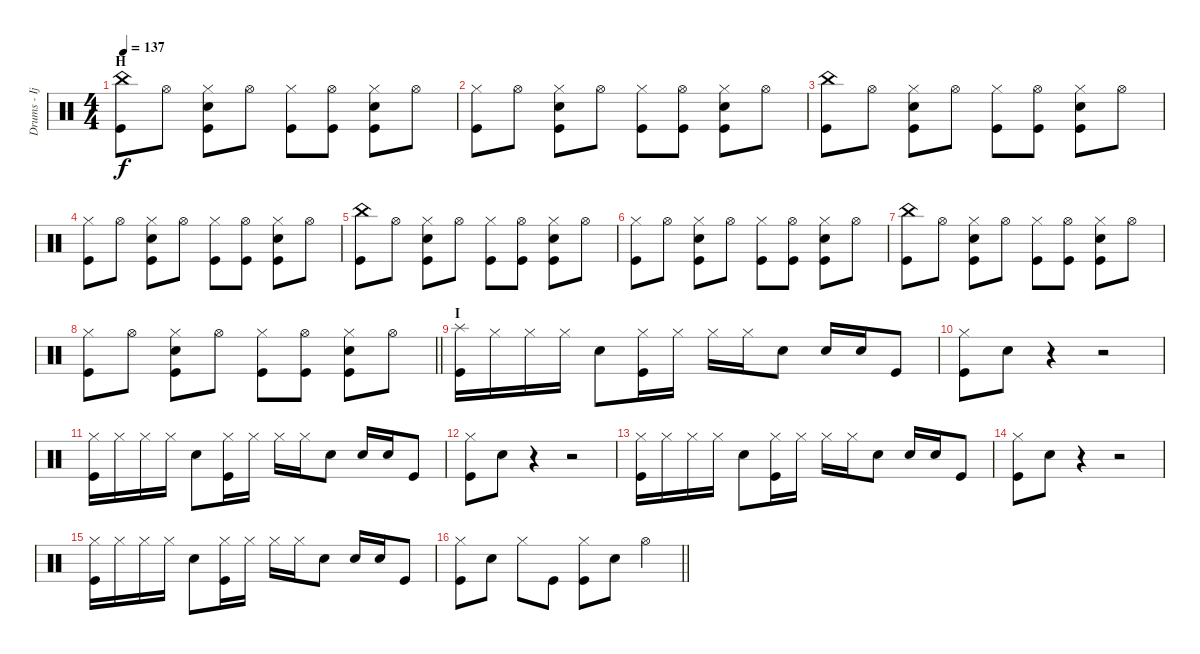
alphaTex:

\track ("Drums - Ijichi" "Drums - Ij") {instrument percussion}
\staff {score}
\articulation defaults
\ts (4 4)
\section ("" "H")
\tempo 137
\clef neutral
\ks c
("China (hit)" "Kick (hit)").8{dy f} "Hi-Hat (open)".8 ("Hi-Hat (closed)" "Electric Snare (hit)" "Kick (hit)").8 "Hi-Hat (open)".8 ("Hi-Hat (closed)" "Kick (hit)").8 ("Hi-Hat (open)" "Kick (hit)").8 ("Hi-Hat (closed)" "Electric Snare (hit)" "Kick (hit)").8 "Hi-Hat (open)".8 |
("Hi-Hat (closed)" "Kick (hit)").8 "Hi-Hat (open)".8 ("Hi-Hat (closed)" "Electric Snare (hit)" "Kick (hit)").8 "Hi-Hat (open)".8 ("Hi-Hat (closed)" "Kick (hit)").8 ("Hi-Hat (open)" "Kick (hit)").8 ("Hi-Hat (closed)" "Electric Snare (hit)" "Kick (hit)").8 "Hi-Hat (open)".8 |
("China (hit)" "Kick (hit)").8 "Hi-Hat (open)".8 ("Hi-Hat (closed)" "Electric Snare (hit)" "Kick (hit)").8 "Hi-Hat (open)".8 ("Hi-Hat (closed)" "Kick (hit)").8 ("Hi-Hat (open)" "Kick (hit)").8 ("Hi-Hat (closed)" "Electric Snare (hit)" "Kick (hit)").8 "Hi-Hat (open)".8 |
("Hi-Hat (closed)" "Kick (hit)").8 "Hi-Hat (open)".8 ("Hi-Hat (closed)" "Electric Snare (hit)" "Kick (hit)").8 "Hi-Hat (open)".8 ("Hi-Hat (closed)" "Kick (hit)").8 ("Hi-Hat (open)" "Kick (hit)").8 ("Hi-Hat (closed)" "Electric Snare (hit)" "Kick (hit)").8 "Hi-Hat (open)".8 |
("China (hit)" "Kick (hit)").8 "Hi-Hat (open)".8 ("Hi-Hat (closed)" "Electric Snare (hit)" "Kick (hit)").8 "Hi-Hat (open)".8 ("Hi-Hat (closed)" "Kick (hit)").8 ("Hi-Hat (open)" "Kick (hit)").8 ("Hi-Hat (closed)" "Electric Snare (hit)" "Kick (hit)").8 "Hi-Hat (open)".8 |
("Hi-Hat (closed)" "Kick (hit)").8 "Hi-Hat (open)".8 ("Hi-Hat (closed)" "Electric Snare (hit)" "Kick (hit)").8 "Hi-Hat (open)".8 ("Hi-Hat (closed)" "Kick (hit)").8 ("Hi-Hat (open)" "Kick (hit)").8 ("Hi-Hat (closed)" "Electric Snare (hit)" "Kick (hit)").8 "Hi-Hat (open)".8 |
("China (hit)" "Kick (hit)").8 "Hi-Hat (open)".8 ("Hi-Hat (closed)" "Electric Snare (hit)" "Kick (hit)").8 "Hi-Hat (open)".8 ("Hi-Hat (closed)" "Kick (hit)").8 ("Hi-Hat (open)" "Kick (hit)").8 ("Hi-Hat (closed)" "Electric Snare (hit)" "Kick (hit)").8 "Hi-Hat (open)".8 |
\barLineRight lightlight
("Hi-Hat (closed)" "Kick (hit)").8 "Hi-Hat (open)".8 ("Hi-Hat (closed)" "Electric Snare (hit)" "Kick (hit)").8 "Hi-Hat (open)".8 ("Hi-Hat (closed)" "Kick (hit)").8 ("Hi-Hat (open)" "Kick (hit)").8 ("Hi-Hat (closed)" "Electric Snare (hit)" "Kick (hit)").8 "Hi-Hat (open)".8 |
\section ("" "I")
("Splash (hit)" "Kick (hit)").16 "Hi-Hat (closed)".16 "Hi-Hat (closed)".16 "Hi-Hat (closed)".16 "Electric Snare (hit)".8 ("Hi-Hat (closed)" "Kick (hit)").16 "Hi-Hat (closed)".16 "Hi-Hat (closed)".16 "Hi-Hat (closed)".16 "Electric Snare (hit)".8 "Electric Snare (hit)".16 "Electric Snare (hit)".16 "Kick (hit)".8 |
("Hi-Hat (closed)" "Kick (hit)").8 "Electric Snare (hit)".8 r.4 r.2 |
("Hi-Hat (closed)" "Kick (hit)").16 "Hi-Hat (closed)".16 "Hi-Hat (closed)".16 "Hi-Hat (closed)".16 "Electric Snare (hit)".8 ("Hi-Hat (closed)" "Kick (hit)").16 "Hi-Hat (closed)".16 "Hi-Hat (closed)".16 "Hi-Hat (closed)".16 "Electric Snare (hit)".8 "Electric Snare (hit)".16 "Electric Snare (hit)".16 "Kick (hit)".8 |
("Hi-Hat (closed)" "Kick (hit)").8 "Electric Snare (hit)".8 r.4 r.2 |
("Hi-Hat (closed)" "Kick (hit)").16 "Hi-Hat (closed)".16 "Hi-Hat (closed)".16 "Hi-Hat (closed)".16 "Electric Snare (hit)".8 ("Hi-Hat (closed)" "Kick (hit)").16 "Hi-Hat (closed)".16 "Hi-Hat (closed)".16 "Hi-Hat (closed)".16 "Electric Snare (hit)".8 "Electric Snare (hit)".16 "Electric Snare (hit)".16 "Kick (hit)".8 |
("Hi-Hat (closed)" "Kick (hit)").8 "Electric Snare (hit)".8 r.4 r.2 |
("Hi-Hat (closed)" "Kick (hit)").16 "Hi-Hat (closed)".16 "Hi-Hat (closed)".16 "Hi-Hat (closed)".16 "Electric Snare (hit)".8 ("Hi-Hat (closed)" "Kick (hit)").16 "Hi-Hat (closed)".16 "Hi-Hat (closed)".16 "Hi-Hat (closed)".16 "Electric Snare (hit)".8 "Electric Snare (hit)".16 "Electric Snare (hit)".16 "Kick (hit)".8 |
\barLineRight lightlight
("Hi-Hat (closed)" "Kick (hit)").8 "Electric Snare (hit)".8 "Hi-Hat (closed)".8 "Kick (hit)".8 ("Hi-Hat (closed)" "Kick (hit)").8 "Electric Snare (hit)".8 "Hi-Hat (open)".4
